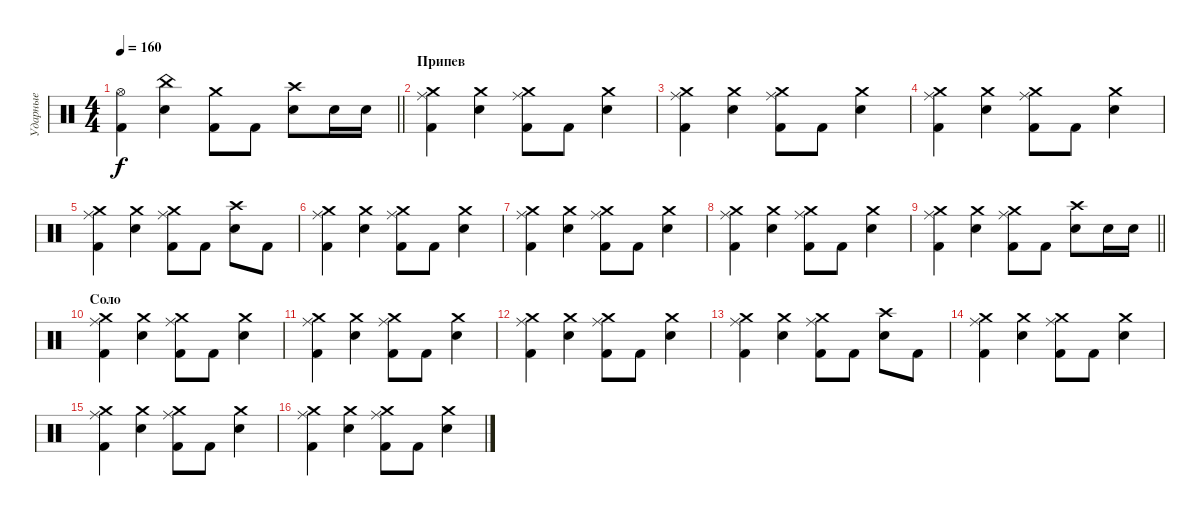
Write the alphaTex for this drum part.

\track ("Ударные" "Ударные") {instrument percussion}
\staff {score}
\articulation defaults
\ts (4 4)
\tempo 160
\clef neutral
\barLineRight lightlight
\ks c
("Kick (hit) 2" "Hi-Hat (open)").4{dy f} ("Electric Snare (hit)" "China (hit)").4 ("Kick (hit) 2" "Crash medium (hit)").8 "Kick (hit) 2".8 ("Electric Snare (hit)" "Crash high (hit)").8 "Electric Snare (hit)".16 "Electric Snare (hit)".16 |
\section ("" "Припев")
("Kick (hit) 2" "Crash medium (hit)" "Ride (middle)").4 ("Electric Snare (hit)" "Crash medium (hit)").4 ("Kick (hit) 2" "Crash medium (hit)" "Ride (middle)").8 "Kick (hit) 2".8 ("Electric Snare (hit)" "Crash medium (hit)").4 |
("Kick (hit) 2" "Crash medium (hit)" "Ride (middle)").4 ("Electric Snare (hit)" "Crash medium (hit)").4 ("Kick (hit) 2" "Crash medium (hit)" "Ride (middle)").8 "Kick (hit) 2".8 ("Electric Snare (hit)" "Crash medium (hit)").4 |
("Kick (hit) 2" "Crash medium (hit)" "Ride (middle)").4 ("Electric Snare (hit)" "Crash medium (hit)").4 ("Kick (hit) 2" "Crash medium (hit)" "Ride (middle)").8 "Kick (hit) 2".8 ("Electric Snare (hit)" "Crash medium (hit)").4 |
("Kick (hit) 2" "Crash medium (hit)" "Ride (middle)").4 ("Electric Snare (hit)" "Crash medium (hit)").4 ("Kick (hit) 2" "Crash medium (hit)" "Ride (middle)").8 "Kick (hit) 2".8 ("Electric Snare (hit)" "Crash high (hit)").8 "Kick (hit) 2".8 |
("Kick (hit) 2" "Crash medium (hit)" "Ride (middle)").4 ("Electric Snare (hit)" "Crash medium (hit)").4 ("Kick (hit) 2" "Crash medium (hit)" "Ride (middle)").8 "Kick (hit) 2".8 ("Electric Snare (hit)" "Crash medium (hit)").4 |
("Kick (hit) 2" "Crash medium (hit)" "Ride (middle)").4 ("Electric Snare (hit)" "Crash medium (hit)").4 ("Kick (hit) 2" "Crash medium (hit)" "Ride (middle)").8 "Kick (hit) 2".8 ("Electric Snare (hit)" "Crash medium (hit)").4 |
("Kick (hit) 2" "Crash medium (hit)" "Ride (middle)").4 ("Electric Snare (hit)" "Crash medium (hit)").4 ("Kick (hit) 2" "Crash medium (hit)" "Ride (middle)").8 "Kick (hit) 2".8 ("Electric Snare (hit)" "Crash medium (hit)").4 |
\barLineRight lightlight
("Kick (hit) 2" "Crash medium (hit)" "Ride (middle)").4 ("Electric Snare (hit)" "Crash medium (hit)").4 ("Kick (hit) 2" "Crash medium (hit)" "Ride (middle)").8 "Kick (hit) 2".8 ("Electric Snare (hit)" "Crash high (hit)").8 "Electric Snare (hit)".16 "Electric Snare (hit)".16 |
\section ("" "Соло")
("Kick (hit) 2" "Crash medium (hit)" "Ride (middle)").4 ("Electric Snare (hit)" "Crash medium (hit)").4 ("Kick (hit) 2" "Crash medium (hit)" "Ride (middle)").8 "Kick (hit) 2".8 ("Electric Snare (hit)" "Crash medium (hit)").4 |
("Kick (hit) 2" "Crash medium (hit)" "Ride (middle)").4 ("Electric Snare (hit)" "Crash medium (hit)").4 ("Kick (hit) 2" "Crash medium (hit)" "Ride (middle)").8 "Kick (hit) 2".8 ("Electric Snare (hit)" "Crash medium (hit)").4 |
("Kick (hit) 2" "Crash medium (hit)" "Ride (middle)").4 ("Electric Snare (hit)" "Crash medium (hit)").4 ("Kick (hit) 2" "Crash medium (hit)" "Ride (middle)").8 "Kick (hit) 2".8 ("Electric Snare (hit)" "Crash medium (hit)").4 |
("Kick (hit) 2" "Crash medium (hit)" "Ride (middle)").4 ("Electric Snare (hit)" "Crash medium (hit)").4 ("Kick (hit) 2" "Crash medium (hit)" "Ride (middle)").8 "Kick (hit) 2".8 ("Electric Snare (hit)" "Crash high (hit)").8 "Kick (hit) 2".8 |
("Kick (hit) 2" "Crash medium (hit)" "Ride (middle)").4 ("Electric Snare (hit)" "Crash medium (hit)").4 ("Kick (hit) 2" "Crash medium (hit)" "Ride (middle)").8 "Kick (hit) 2".8 ("Electric Snare (hit)" "Crash medium (hit)").4 |
("Kick (hit) 2" "Crash medium (hit)" "Ride (middle)").4 ("Electric Snare (hit)" "Crash medium (hit)").4 ("Kick (hit) 2" "Crash medium (hit)" "Ride (middle)").8 "Kick (hit) 2".8 ("Electric Snare (hit)" "Crash medium (hit)").4 |
("Kick (hit) 2" "Crash medium (hit)" "Ride (middle)").4 ("Electric Snare (hit)" "Crash medium (hit)").4 ("Kick (hit) 2" "Crash medium (hit)" "Ride (middle)").8 "Kick (hit) 2".8 ("Electric Snare (hit)" "Crash medium (hit)").4
